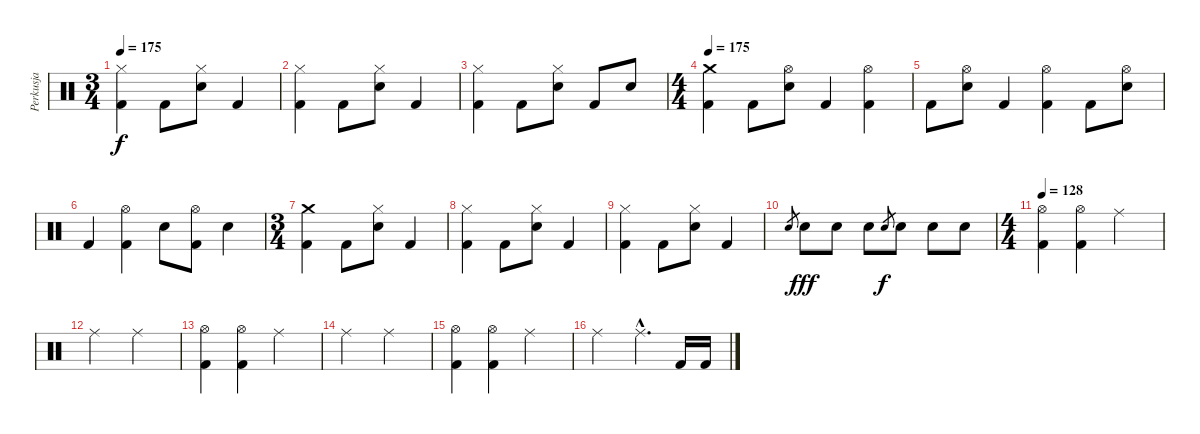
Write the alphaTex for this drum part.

\track ("Perkusja" "Perkusja") {instrument percussion}
\staff {score}
\articulation defaults
\ts (3 4)
\tempo 175
\clef neutral
\ks c
("Hi-Hat (closed)" "Kick (hit) 2").4{dy f} "Kick (hit) 2".8 ("Hi-Hat (closed)" "Snare (hit) 2").8 "Kick (hit) 2".4 |
("Hi-Hat (closed)" "Kick (hit) 2").4 "Kick (hit) 2".8 ("Hi-Hat (closed)" "Snare (hit) 2").8 "Kick (hit) 2".4 |
("Hi-Hat (closed)" "Kick (hit) 2").4 "Kick (hit) 2".8 ("Hi-Hat (closed)" "Snare (hit) 2").8 "Kick (hit) 2".8 "Snare (hit) 2".8 |
\ts (4 4)
\tempo 175
("Crash medium (hit)" "Kick (hit) 2").4 "Kick (hit) 2".8 ("Hi-Hat (open)" "Snare (hit) 2").8 "Kick (hit) 2".4 ("Hi-Hat (open)" "Kick (hit) 2").4 |
"Kick (hit) 2".8 ("Hi-Hat (open)" "Snare (hit) 2").8 "Kick (hit) 2".4 ("Hi-Hat (open)" "Kick (hit) 2").4 "Kick (hit) 2".8 ("Hi-Hat (open)" "Snare (hit) 2").8 |
"Kick (hit) 2".4 ("Hi-Hat (open)" "Kick (hit) 2").4 "Snare (hit) 2".8 ("Hi-Hat (open)" "Kick (hit) 2").8 "Snare (hit) 2".4 |
\ts (3 4)
("Crash medium (hit)" "Kick (hit) 2").4 "Kick (hit) 2".8 ("Hi-Hat (closed)" "Snare (hit) 2").8 "Kick (hit) 2".4 |
("Hi-Hat (closed)" "Kick (hit) 2").4 "Kick (hit) 2".8 ("Hi-Hat (closed)" "Snare (hit) 2").8 "Kick (hit) 2".4 |
("Hi-Hat (closed)" "Kick (hit) 2").4 "Kick (hit) 2".8 ("Hi-Hat (closed)" "Snare (hit) 2").8 "Kick (hit) 2".4 |
"Electric Snare (hit)".8{gr} "Electric Snare (hit)".8{dy fff} "Electric Snare (hit)".8 "Electric Snare (hit)".8 "Snare (hit) 2".8{gr dy f} "Snare (hit) 2".8 "Snare (hit) 2".8 "Snare (hit) 2".8 |
\ts (4 4)
\tempo 128
("Hi-Hat (open)" "Kick (hit) 2").4 ("Hi-Hat (open)" "Kick (hit) 2").4 "Ride (middle)".2 |
"Ride (middle)".2 "Ride (middle)".2 |
("Hi-Hat (open)" "Kick (hit) 2").4 ("Hi-Hat (open)" "Kick (hit) 2").4 "Ride (middle)".2 |
"Ride (middle)".2 "Ride (middle)".2 |
("Hi-Hat (open)" "Kick (hit) 2").4 ("Hi-Hat (open)" "Kick (hit) 2").4 "Ride (middle)".2 |
"Ride (middle)".2 "Ride (middle)"{hac}.4{d} "Kick (hit) 2".16 "Kick (hit) 2".16
